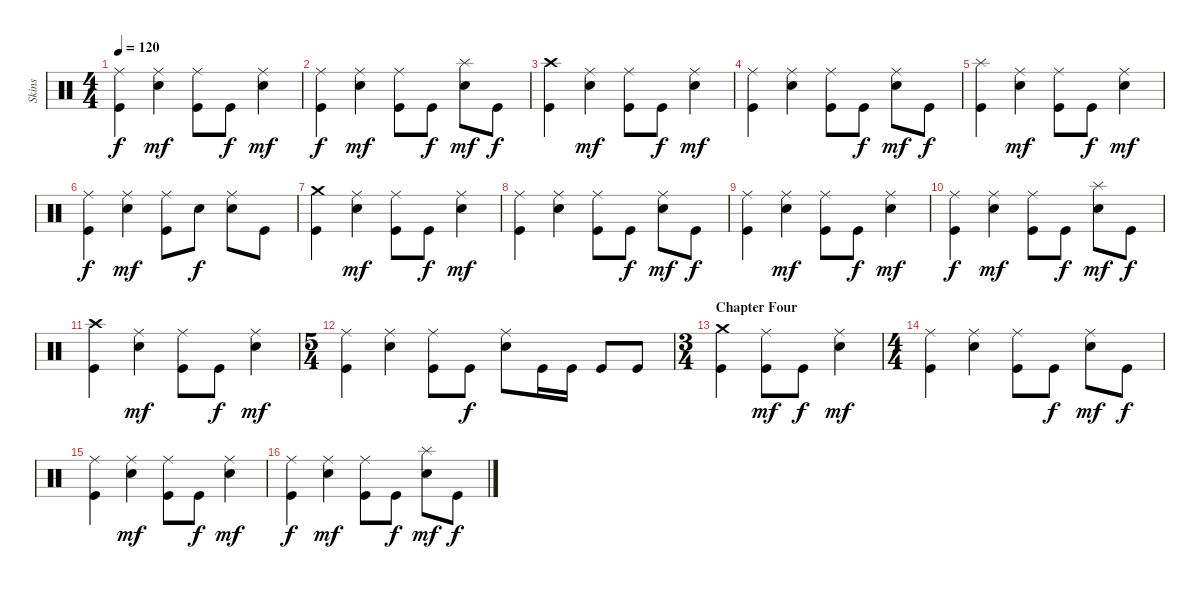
\track ("Skins" "Skins") {instrument percussion}
\staff {score}
\articulation defaults
\ts (4 4)
\tempo 120
\clef neutral
\ks c
("Ride (middle)" "Kick (hit)").4{dy f} ("Ride (middle)" "Snare (hit) 2").4{dy mf} ("Ride (middle)" "Kick (hit)").8 "Kick (hit)".8{dy f} ("Ride (middle)" "Snare (hit) 2").4{dy mf} |
("Ride (middle)" "Kick (hit)").4{dy f} ("Ride (middle)" "Snare (hit) 2").4{dy mf} ("Ride (middle)" "Kick (hit)").8 "Kick (hit)".8{dy f} ("Splash (hit)" "Snare (hit) 2").8{dy mf} "Kick (hit)".8{dy f} |
("Crash high (hit)" "Kick (hit)").4 ("Ride (middle)" "Snare (hit) 2").4{dy mf} ("Ride (middle)" "Kick (hit)").8 "Kick (hit)".8{dy f} ("Ride (middle)" "Snare (hit) 2").4{dy mf} |
("Ride (middle)" "Kick (hit)").4 ("Ride (middle)" "Snare (hit) 2").4 ("Ride (middle)" "Kick (hit)").8 "Kick (hit)".8{dy f} ("Ride (middle)" "Snare (hit) 2").8{dy mf} "Kick (hit)".8{dy f} |
("Splash (hit)" "Kick (hit)").4 ("Ride (middle)" "Snare (hit) 2").4{dy mf} ("Ride (middle)" "Kick (hit)").8 "Kick (hit)".8{dy f} ("Ride (middle)" "Snare (hit) 2").4{dy mf} |
("Ride (middle)" "Kick (hit)").4{dy f} ("Ride (middle)" "Snare (hit) 2").4{dy mf} ("Ride (middle)" "Kick (hit)").8 "Snare (hit) 2".8{dy f} ("Ride (middle)" "Snare (hit) 2").8 "Kick (hit)".8 |
("Crash medium (hit)" "Kick (hit)").4 ("Ride (middle)" "Snare (hit) 2").4{dy mf} ("Ride (middle)" "Kick (hit)").8 "Kick (hit)".8{dy f} ("Ride (middle)" "Snare (hit) 2").4{dy mf} |
("Ride (middle)" "Kick (hit)").4 ("Ride (middle)" "Snare (hit) 2").4 ("Ride (middle)" "Kick (hit)").8 "Kick (hit)".8{dy f} ("Ride (middle)" "Snare (hit) 2").8{dy mf} "Kick (hit)".8{dy f} |
("Ride (middle)" "Kick (hit)").4 ("Ride (middle)" "Snare (hit) 2").4{dy mf} ("Ride (middle)" "Kick (hit)").8 "Kick (hit)".8{dy f} ("Ride (middle)" "Snare (hit) 2").4{dy mf} |
("Ride (middle)" "Kick (hit)").4{dy f} ("Ride (middle)" "Snare (hit) 2").4{dy mf} ("Ride (middle)" "Kick (hit)").8 "Kick (hit)".8{dy f} ("Splash (hit)" "Snare (hit) 2").8{dy mf} "Kick (hit)".8{dy f} |
("Crash high (hit)" "Kick (hit)").4 ("Ride (middle)" "Snare (hit) 2").4{dy mf} ("Ride (middle)" "Kick (hit)").8 "Kick (hit)".8{dy f} ("Ride (middle)" "Snare (hit) 2").4{dy mf} |
\ts (5 4)
("Ride (middle)" "Kick (hit)").4 ("Ride (middle)" "Snare (hit) 2").4 ("Ride (middle)" "Kick (hit)").8 "Kick (hit)".8{dy f} ("Ride (middle)" "Snare (hit) 2").8 "Kick (hit)".16 "Kick (hit)".16 "Kick (hit)".8 "Kick (hit)".8 |
\ts (3 4)
\section ("" "Chapter Four")
("Crash medium (hit)" "Kick (hit)").4 ("Ride (middle)" "Kick (hit)").8{dy mf} "Kick (hit)".8{dy f} ("Ride (middle)" "Snare (hit) 2").4{dy mf} |
\ts (4 4)
("Ride (middle)" "Kick (hit)").4 ("Ride (middle)" "Snare (hit) 2").4 ("Ride (middle)" "Kick (hit)").8 "Kick (hit)".8{dy f} ("Ride (middle)" "Snare (hit) 2").8{dy mf} "Kick (hit)".8{dy f} |
("Ride (middle)" "Kick (hit)").4 ("Ride (middle)" "Snare (hit) 2").4{dy mf} ("Ride (middle)" "Kick (hit)").8 "Kick (hit)".8{dy f} ("Ride (middle)" "Snare (hit) 2").4{dy mf} |
("Ride (middle)" "Kick (hit)").4{dy f} ("Ride (middle)" "Snare (hit) 2").4{dy mf} ("Ride (middle)" "Kick (hit)").8 "Kick (hit)".8{dy f} ("Splash (hit)" "Snare (hit) 2").8{dy mf} "Kick (hit)".8{dy f}
